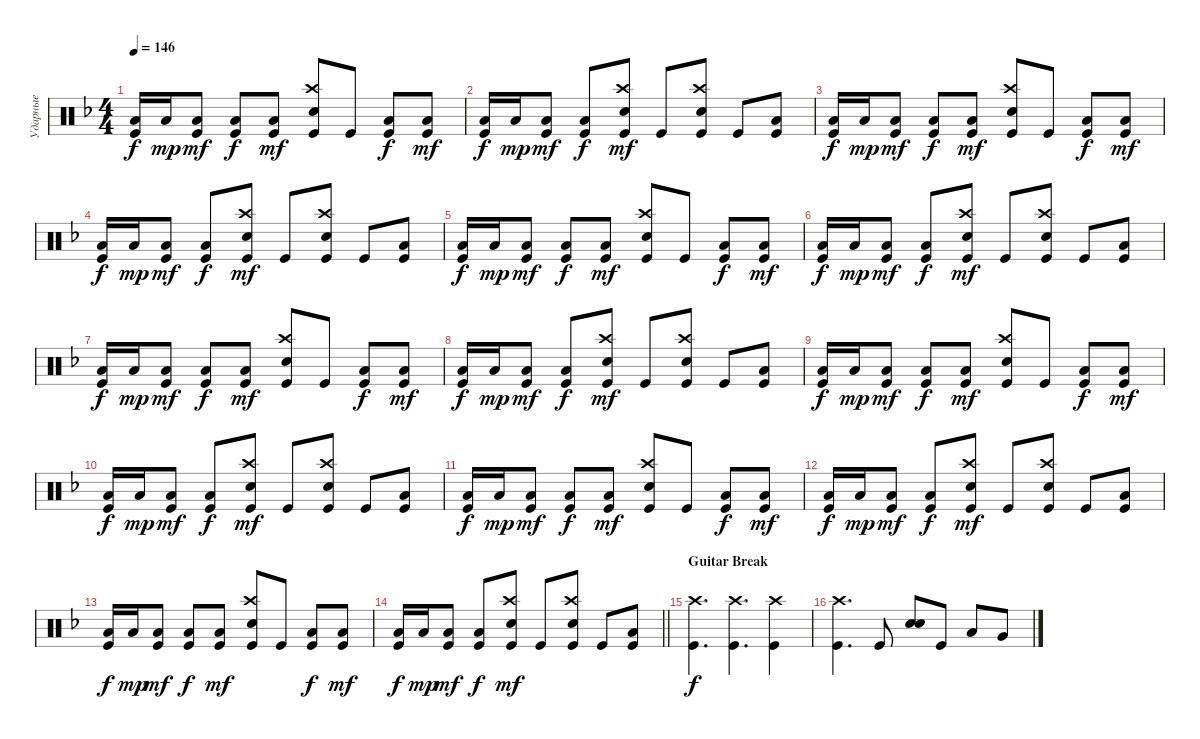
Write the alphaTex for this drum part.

\track ("Ударные" "Ударные") {instrument percussion}
\staff {score}
\articulation defaults
\ts (4 4)
\tempo 146
\clef neutral
\ks dminor
("Kick (hit)" "Low Floor Tom (hit)").16{dy f} "Low Floor Tom (hit)".16{dy mp} ("Kick (hit)" "Low Floor Tom (hit)").8{dy mf} ("Kick (hit)" "Low Floor Tom (hit)").8{bd 120 dy f} ("Low Floor Tom (hit)" "Kick (hit)").8{dy mf} ("Kick (hit)" "Crash high (hit)" "Snare (hit) 2").8{bd 120} "Kick (hit)".8 ("Kick (hit)" "Low Floor Tom (hit)").8{dy f} ("Low Floor Tom (hit)" "Kick (hit)").8{dy mf} |
("Kick (hit)" "Low Floor Tom (hit)").16{dy f} "Low Floor Tom (hit)".16{dy mp} ("Kick (hit)" "Low Floor Tom (hit)").8{dy mf} ("Kick (hit)" "Low Floor Tom (hit)").8{bd 120 dy f} ("Kick (hit)" "Crash high (hit)" "Snare (hit) 2").8{bd 120 dy mf} "Kick (hit)".8 ("Kick (hit)" "Crash high (hit)" "Snare (hit) 2").8 "Kick (hit)".8 ("Kick (hit)" "Low Floor Tom (hit)").8 |
("Kick (hit)" "Low Floor Tom (hit)").16{dy f} "Low Floor Tom (hit)".16{dy mp} ("Kick (hit)" "Low Floor Tom (hit)").8{dy mf} ("Kick (hit)" "Low Floor Tom (hit)").8{bd 120 dy f} ("Low Floor Tom (hit)" "Kick (hit)").8{dy mf} ("Kick (hit)" "Crash high (hit)" "Snare (hit) 2").8{bd 120} "Kick (hit)".8 ("Kick (hit)" "Low Floor Tom (hit)").8{dy f} ("Low Floor Tom (hit)" "Kick (hit)").8{dy mf} |
("Kick (hit)" "Low Floor Tom (hit)").16{dy f} "Low Floor Tom (hit)".16{dy mp} ("Kick (hit)" "Low Floor Tom (hit)").8{dy mf} ("Kick (hit)" "Low Floor Tom (hit)").8{bd 120 dy f} ("Kick (hit)" "Crash high (hit)" "Snare (hit) 2").8{bd 120 dy mf} "Kick (hit)".8 ("Kick (hit)" "Crash high (hit)" "Snare (hit) 2").8 "Kick (hit)".8 ("Kick (hit)" "Low Floor Tom (hit)").8 |
("Kick (hit)" "Low Floor Tom (hit)").16{dy f} "Low Floor Tom (hit)".16{dy mp} ("Kick (hit)" "Low Floor Tom (hit)").8{dy mf} ("Kick (hit)" "Low Floor Tom (hit)").8{bd 120 dy f} ("Low Floor Tom (hit)" "Kick (hit)").8{dy mf} ("Kick (hit)" "Crash high (hit)" "Snare (hit) 2").8{bd 120} "Kick (hit)".8 ("Kick (hit)" "Low Floor Tom (hit)").8{dy f} ("Low Floor Tom (hit)" "Kick (hit)").8{dy mf} |
("Kick (hit)" "Low Floor Tom (hit)").16{dy f} "Low Floor Tom (hit)".16{dy mp} ("Kick (hit)" "Low Floor Tom (hit)").8{dy mf} ("Kick (hit)" "Low Floor Tom (hit)").8{bd 120 dy f} ("Kick (hit)" "Crash high (hit)" "Snare (hit) 2").8{bd 120 dy mf} "Kick (hit)".8 ("Kick (hit)" "Crash high (hit)" "Snare (hit) 2").8 "Kick (hit)".8 ("Kick (hit)" "Low Floor Tom (hit)").8 |
("Kick (hit)" "Low Floor Tom (hit)").16{dy f} "Low Floor Tom (hit)".16{dy mp} ("Kick (hit)" "Low Floor Tom (hit)").8{dy mf} ("Kick (hit)" "Low Floor Tom (hit)").8{bd 120 dy f} ("Low Floor Tom (hit)" "Kick (hit)").8{dy mf} ("Kick (hit)" "Crash high (hit)" "Snare (hit) 2").8{bd 120} "Kick (hit)".8 ("Kick (hit)" "Low Floor Tom (hit)").8{dy f} ("Low Floor Tom (hit)" "Kick (hit)").8{dy mf} |
("Kick (hit)" "Low Floor Tom (hit)").16{dy f} "Low Floor Tom (hit)".16{dy mp} ("Kick (hit)" "Low Floor Tom (hit)").8{dy mf} ("Kick (hit)" "Low Floor Tom (hit)").8{bd 120 dy f} ("Kick (hit)" "Crash high (hit)" "Snare (hit) 2").8{bd 120 dy mf} "Kick (hit)".8 ("Kick (hit)" "Crash high (hit)" "Snare (hit) 2").8 "Kick (hit)".8 ("Kick (hit)" "Low Floor Tom (hit)").8 |
("Kick (hit)" "Low Floor Tom (hit)").16{dy f} "Low Floor Tom (hit)".16{dy mp} ("Kick (hit)" "Low Floor Tom (hit)").8{dy mf} ("Kick (hit)" "Low Floor Tom (hit)").8{bd 120 dy f} ("Low Floor Tom (hit)" "Kick (hit)").8{dy mf} ("Kick (hit)" "Crash high (hit)" "Snare (hit) 2").8{bd 120} "Kick (hit)".8 ("Kick (hit)" "Low Floor Tom (hit)").8{dy f} ("Low Floor Tom (hit)" "Kick (hit)").8{dy mf} |
("Kick (hit)" "Low Floor Tom (hit)").16{dy f} "Low Floor Tom (hit)".16{dy mp} ("Kick (hit)" "Low Floor Tom (hit)").8{dy mf} ("Kick (hit)" "Low Floor Tom (hit)").8{bd 120 dy f} ("Kick (hit)" "Crash high (hit)" "Snare (hit) 2").8{bd 120 dy mf} "Kick (hit)".8 ("Kick (hit)" "Crash high (hit)" "Snare (hit) 2").8 "Kick (hit)".8 ("Kick (hit)" "Low Floor Tom (hit)").8 |
("Kick (hit)" "Low Floor Tom (hit)").16{dy f} "Low Floor Tom (hit)".16{dy mp} ("Kick (hit)" "Low Floor Tom (hit)").8{dy mf} ("Kick (hit)" "Low Floor Tom (hit)").8{bd 120 dy f} ("Low Floor Tom (hit)" "Kick (hit)").8{dy mf} ("Kick (hit)" "Crash high (hit)" "Snare (hit) 2").8{bd 120} "Kick (hit)".8 ("Kick (hit)" "Low Floor Tom (hit)").8{dy f} ("Low Floor Tom (hit)" "Kick (hit)").8{dy mf} |
("Kick (hit)" "Low Floor Tom (hit)").16{dy f} "Low Floor Tom (hit)".16{dy mp} ("Kick (hit)" "Low Floor Tom (hit)").8{dy mf} ("Kick (hit)" "Low Floor Tom (hit)").8{bd 120 dy f} ("Kick (hit)" "Crash high (hit)" "Snare (hit) 2").8{bd 120 dy mf} "Kick (hit)".8 ("Kick (hit)" "Crash high (hit)" "Snare (hit) 2").8 "Kick (hit)".8 ("Kick (hit)" "Low Floor Tom (hit)").8 |
("Kick (hit)" "Low Floor Tom (hit)").16{dy f} "Low Floor Tom (hit)".16{dy mp} ("Kick (hit)" "Low Floor Tom (hit)").8{dy mf} ("Kick (hit)" "Low Floor Tom (hit)").8{bd 120 dy f} ("Low Floor Tom (hit)" "Kick (hit)").8{dy mf} ("Kick (hit)" "Crash high (hit)" "Snare (hit) 2").8{bd 120} "Kick (hit)".8 ("Kick (hit)" "Low Floor Tom (hit)").8{dy f} ("Low Floor Tom (hit)" "Kick (hit)").8{dy mf} |
\barLineRight lightlight
("Kick (hit)" "Low Floor Tom (hit)").16{dy f} "Low Floor Tom (hit)".16{dy mp} ("Kick (hit)" "Low Floor Tom (hit)").8{dy mf} ("Kick (hit)" "Low Floor Tom (hit)").8{bd 120 dy f} ("Kick (hit)" "Crash high (hit)" "Snare (hit) 2").8{bd 120 dy mf} "Kick (hit)".8 ("Kick (hit)" "Crash high (hit)" "Snare (hit) 2").8 "Kick (hit)".8 ("Kick (hit)" "Low Floor Tom (hit)").8 |
\section ("" "Guitar Break")
("Kick (hit)" "Crash high (hit)").4{d dy f} ("Kick (hit)" "Crash high (hit)").4{d} ("Kick (hit)" "Crash high (hit)").4 |
("Kick (hit)" "Crash high (hit)").4{d} "Kick (hit)".8 ("Snare (hit) 2" "Snare (hit) 2").8{bd 240} "Kick (hit)".8 "Low Tom (hit)".8 "Very Low Tom (hit)".8
